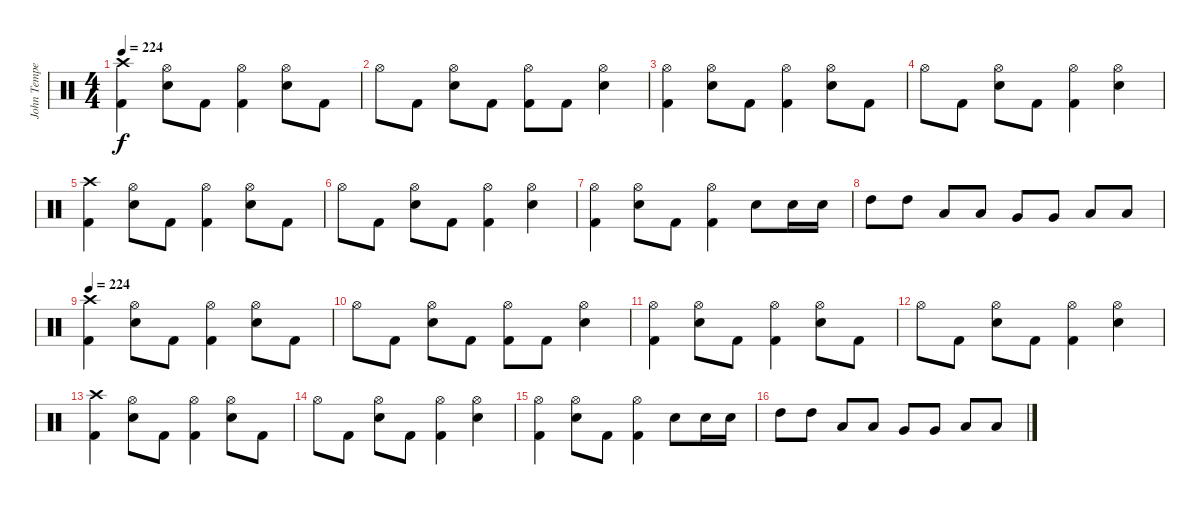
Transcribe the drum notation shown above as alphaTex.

\track ("John Tempesta" "John Tempe") {instrument percussion}
\staff {score}
\articulation defaults
\ts (4 4)
\tempo 224
\clef neutral
\ks c
("Crash high (hit)" "Kick (hit) 2").4{dy f} ("Hi-Hat (open)" "Electric Snare (hit)").8 "Kick (hit) 2".8 ("Hi-Hat (open)" "Kick (hit) 2").4 ("Hi-Hat (open)" "Electric Snare (hit)").8 "Kick (hit) 2".8 |
"Hi-Hat (open)".8 "Kick (hit) 2".8 ("Hi-Hat (open)" "Electric Snare (hit)").8 "Kick (hit) 2".8 ("Hi-Hat (open)" "Kick (hit) 2").8 "Kick (hit) 2".8 ("Hi-Hat (open)" "Electric Snare (hit)").4 |
("Hi-Hat (open)" "Kick (hit) 2").4 ("Hi-Hat (open)" "Electric Snare (hit)").8 "Kick (hit) 2".8 ("Hi-Hat (open)" "Kick (hit) 2").4 ("Hi-Hat (open)" "Electric Snare (hit)").8 "Kick (hit) 2".8 |
"Hi-Hat (open)".8 "Kick (hit) 2".8 ("Hi-Hat (open)" "Electric Snare (hit)").8 "Kick (hit) 2".8 ("Hi-Hat (open)" "Kick (hit) 2").4 ("Hi-Hat (open)" "Electric Snare (hit)").4 |
("Crash high (hit)" "Kick (hit) 2").4 ("Hi-Hat (open)" "Electric Snare (hit)").8 "Kick (hit) 2".8 ("Hi-Hat (open)" "Kick (hit) 2").4 ("Hi-Hat (open)" "Electric Snare (hit)").8 "Kick (hit) 2".8 |
"Hi-Hat (open)".8 "Kick (hit) 2".8 ("Hi-Hat (open)" "Electric Snare (hit)").8 "Kick (hit) 2".8 ("Hi-Hat (open)" "Kick (hit) 2").4 ("Hi-Hat (open)" "Electric Snare (hit)").4 |
("Hi-Hat (open)" "Kick (hit) 2").4 ("Hi-Hat (open)" "Electric Snare (hit)").8 "Kick (hit) 2".8 ("Hi-Hat (open)" "Kick (hit) 2").4 "Electric Snare (hit)".8 "Electric Snare (hit)".16 "Electric Snare (hit)".16 |
"High Tom (hit)".8 "High Tom (hit)".8 "Low Tom (hit)".8 "Low Tom (hit)".8 "Very Low Tom (hit)".8 "Very Low Tom (hit)".8 "Low Floor Tom (hit)".8 "Low Floor Tom (hit)".8 |
\tempo 224
("Crash high (hit)" "Kick (hit) 2").4 ("Hi-Hat (open)" "Electric Snare (hit)").8 "Kick (hit) 2".8 ("Hi-Hat (open)" "Kick (hit) 2").4 ("Hi-Hat (open)" "Electric Snare (hit)").8 "Kick (hit) 2".8 |
"Hi-Hat (open)".8 "Kick (hit) 2".8 ("Hi-Hat (open)" "Electric Snare (hit)").8 "Kick (hit) 2".8 ("Hi-Hat (open)" "Kick (hit) 2").8 "Kick (hit) 2".8 ("Hi-Hat (open)" "Electric Snare (hit)").4 |
("Hi-Hat (open)" "Kick (hit) 2").4 ("Hi-Hat (open)" "Electric Snare (hit)").8 "Kick (hit) 2".8 ("Hi-Hat (open)" "Kick (hit) 2").4 ("Hi-Hat (open)" "Electric Snare (hit)").8 "Kick (hit) 2".8 |
"Hi-Hat (open)".8 "Kick (hit) 2".8 ("Hi-Hat (open)" "Electric Snare (hit)").8 "Kick (hit) 2".8 ("Hi-Hat (open)" "Kick (hit) 2").4 ("Hi-Hat (open)" "Electric Snare (hit)").4 |
("Crash high (hit)" "Kick (hit) 2").4 ("Hi-Hat (open)" "Electric Snare (hit)").8 "Kick (hit) 2".8 ("Hi-Hat (open)" "Kick (hit) 2").4 ("Hi-Hat (open)" "Electric Snare (hit)").8 "Kick (hit) 2".8 |
"Hi-Hat (open)".8 "Kick (hit) 2".8 ("Hi-Hat (open)" "Electric Snare (hit)").8 "Kick (hit) 2".8 ("Hi-Hat (open)" "Kick (hit) 2").4 ("Hi-Hat (open)" "Electric Snare (hit)").4 |
("Hi-Hat (open)" "Kick (hit) 2").4 ("Hi-Hat (open)" "Electric Snare (hit)").8 "Kick (hit) 2".8 ("Hi-Hat (open)" "Kick (hit) 2").4 "Electric Snare (hit)".8 "Electric Snare (hit)".16 "Electric Snare (hit)".16 |
"High Tom (hit)".8 "High Tom (hit)".8 "Low Tom (hit)".8 "Low Tom (hit)".8 "Very Low Tom (hit)".8 "Very Low Tom (hit)".8 "Low Floor Tom (hit)".8 "Low Floor Tom (hit)".8
